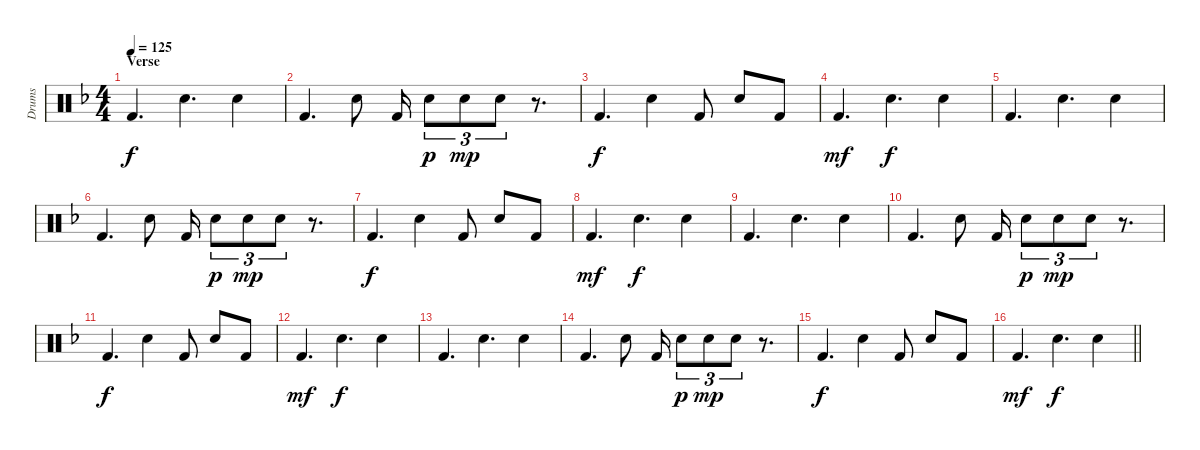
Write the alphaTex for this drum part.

\track ("Drums" "Drums") {instrument percussion}
\staff {score}
\articulation defaults
\ts (4 4)
\section ("" "Verse")
\tempo 125
\clef neutral
\ks f "Kick (hit) 2".4{d dy f} "Snare (hit) 2".4{d} "Snare (hit) 2".4
|
"Kick (hit) 2".4{d} "Snare (hit) 2".8 "Kick (hit) 2".16 "Snare (hit) 2".8{tu (3 2) dy p} "Snare (hit) 2".8{tu (3 2) dy mp} "Snare (hit) 2".8{tu (3 2)} r.8{d} |
"Kick (hit) 2".4{d dy f} "Snare (hit) 2".4 "Kick (hit) 2".8 "Snare (hit) 2".8 "Kick (hit) 2".8 |
"Kick (hit) 2".4{d dy mf} "Snare (hit) 2".4{d dy f} "Snare (hit) 2".4 |
"Kick (hit) 2".4{d} "Snare (hit) 2".4{d} "Snare (hit) 2".4 |
"Kick (hit) 2".4{d} "Snare (hit) 2".8 "Kick (hit) 2".16 "Snare (hit) 2".8{tu (3 2) dy p} "Snare (hit) 2".8{tu (3 2) dy mp} "Snare (hit) 2".8{tu (3 2)} r.8{d} |
"Kick (hit) 2".4{d dy f} "Snare (hit) 2".4 "Kick (hit) 2".8 "Snare (hit) 2".8 "Kick (hit) 2".8 |
"Kick (hit) 2".4{d dy mf} "Snare (hit) 2".4{d dy f} "Snare (hit) 2".4 |
"Kick (hit) 2".4{d} "Snare (hit) 2".4{d} "Snare (hit) 2".4 |
"Kick (hit) 2".4{d} "Snare (hit) 2".8 "Kick (hit) 2".16 "Snare (hit) 2".8{tu (3 2) dy p} "Snare (hit) 2".8{tu (3 2) dy mp} "Snare (hit) 2".8{tu (3 2)} r.8{d} |
"Kick (hit) 2".4{d dy f} "Snare (hit) 2".4 "Kick (hit) 2".8 "Snare (hit) 2".8 "Kick (hit) 2".8 |
"Kick (hit) 2".4{d dy mf} "Snare (hit) 2".4{d dy f} "Snare (hit) 2".4 |
"Kick (hit) 2".4{d} "Snare (hit) 2".4{d} "Snare (hit) 2".4 |
"Kick (hit) 2".4{d} "Snare (hit) 2".8 "Kick (hit) 2".16 "Snare (hit) 2".8{tu (3 2) dy p} "Snare (hit) 2".8{tu (3 2) dy mp} "Snare (hit) 2".8{tu (3 2)} r.8{d} |
"Kick (hit) 2".4{d dy f} "Snare (hit) 2".4 "Kick (hit) 2".8 "Snare (hit) 2".8 "Kick (hit) 2".8 |
\barLineRight lightlight "Kick (hit) 2".4{d dy mf} "Snare (hit) 2".4{d dy f} "Snare (hit) 2".4
